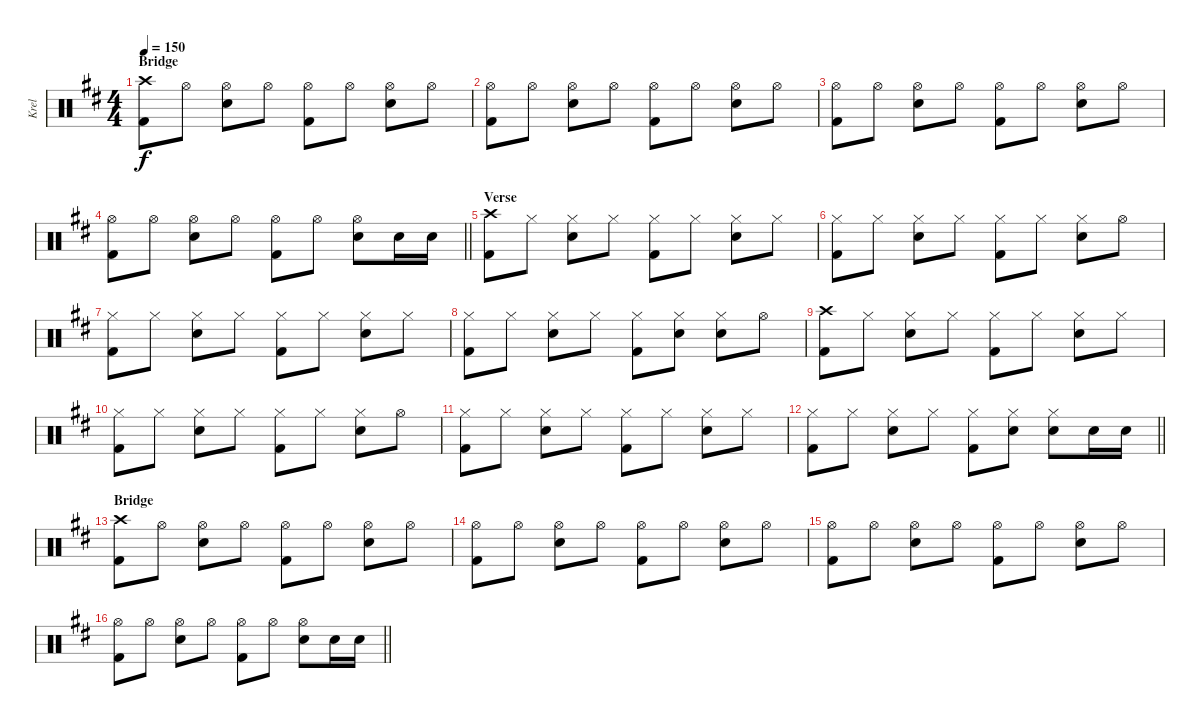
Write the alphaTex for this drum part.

\track ("Krel" "Krel") {instrument percussion}
\staff {score}
\articulation defaults
\ts (4 4)
\section ("" "Bridge")
\tempo 150
\clef neutral
\ks d
("Crash high (hit)" "Kick (hit) 2").8{dy f} "Hi-Hat (open)".8 ("Hi-Hat (open)" "Snare (hit) 2").8 "Hi-Hat (open)".8 ("Hi-Hat (open)" "Kick (hit) 2").8 "Hi-Hat (open)".8 ("Hi-Hat (open)" "Snare (hit) 2").8 "Hi-Hat (open)".8 |
("Hi-Hat (open)" "Kick (hit) 2").8 "Hi-Hat (open)".8 ("Hi-Hat (open)" "Snare (hit) 2").8 "Hi-Hat (open)".8 ("Hi-Hat (open)" "Kick (hit) 2").8 "Hi-Hat (open)".8 ("Hi-Hat (open)" "Snare (hit) 2").8 "Hi-Hat (open)".8 |
("Hi-Hat (open)" "Kick (hit) 2").8 "Hi-Hat (open)".8 ("Hi-Hat (open)" "Snare (hit) 2").8 "Hi-Hat (open)".8 ("Hi-Hat (open)" "Kick (hit) 2").8 "Hi-Hat (open)".8 ("Hi-Hat (open)" "Snare (hit) 2").8 "Hi-Hat (open)".8 |
\barLineRight lightlight
("Hi-Hat (open)" "Kick (hit) 2").8 "Hi-Hat (open)".8 ("Hi-Hat (open)" "Snare (hit) 2").8 "Hi-Hat (open)".8 ("Hi-Hat (open)" "Kick (hit) 2").8 "Hi-Hat (open)".8 ("Hi-Hat (open)" "Snare (hit) 2").8 "Snare (hit) 2".16 "Snare (hit) 2".16 |
\section ("" "Verse")
("Crash high (hit)" "Kick (hit) 2").8 "Hi-Hat (closed)".8 ("Hi-Hat (closed)" "Snare (hit) 2").8 "Hi-Hat (closed)".8 ("Hi-Hat (closed)" "Kick (hit) 2").8 "Hi-Hat (closed)".8 ("Hi-Hat (closed)" "Snare (hit) 2").8 "Hi-Hat (closed)".8 |
("Hi-Hat (closed)" "Kick (hit) 2").8 "Hi-Hat (closed)".8 ("Hi-Hat (closed)" "Snare (hit) 2").8 "Hi-Hat (closed)".8 ("Hi-Hat (closed)" "Kick (hit) 2").8 "Hi-Hat (closed)".8 ("Hi-Hat (closed)" "Snare (hit) 2").8 "Hi-Hat (open)".8 |
("Hi-Hat (closed)" "Kick (hit) 2").8 "Hi-Hat (closed)".8 ("Hi-Hat (closed)" "Snare (hit) 2").8 "Hi-Hat (closed)".8 ("Hi-Hat (closed)" "Kick (hit) 2").8 "Hi-Hat (closed)".8 ("Hi-Hat (closed)" "Snare (hit) 2").8 "Hi-Hat (closed)".8 |
("Hi-Hat (closed)" "Kick (hit) 2").8 "Hi-Hat (closed)".8 ("Hi-Hat (closed)" "Snare (hit) 2").8 "Hi-Hat (closed)".8 ("Hi-Hat (closed)" "Kick (hit) 2").8 ("Hi-Hat (closed)" "Snare (hit) 2").8 ("Hi-Hat (closed)" "Snare (hit) 2").8 "Hi-Hat (open)".8 |
("Crash high (hit)" "Kick (hit) 2").8 "Hi-Hat (closed)".8 ("Hi-Hat (closed)" "Snare (hit) 2").8 "Hi-Hat (closed)".8 ("Hi-Hat (closed)" "Kick (hit) 2").8 "Hi-Hat (closed)".8 ("Hi-Hat (closed)" "Snare (hit) 2").8 "Hi-Hat (closed)".8 |
("Hi-Hat (closed)" "Kick (hit) 2").8 "Hi-Hat (closed)".8 ("Hi-Hat (closed)" "Snare (hit) 2").8 "Hi-Hat (closed)".8 ("Hi-Hat (closed)" "Kick (hit) 2").8 "Hi-Hat (closed)".8 ("Hi-Hat (closed)" "Snare (hit) 2").8 "Hi-Hat (open)".8 |
("Hi-Hat (closed)" "Kick (hit) 2").8 "Hi-Hat (closed)".8 ("Hi-Hat (closed)" "Snare (hit) 2").8 "Hi-Hat (closed)".8 ("Hi-Hat (closed)" "Kick (hit) 2").8 "Hi-Hat (closed)".8 ("Hi-Hat (closed)" "Snare (hit) 2").8 "Hi-Hat (closed)".8 |
\barLineRight lightlight
("Hi-Hat (closed)" "Kick (hit) 2").8 "Hi-Hat (closed)".8 ("Hi-Hat (closed)" "Snare (hit) 2").8 "Hi-Hat (closed)".8 ("Hi-Hat (closed)" "Kick (hit) 2").8 ("Hi-Hat (closed)" "Snare (hit) 2").8 ("Hi-Hat (closed)" "Snare (hit) 2").8 "Snare (hit) 2".16 "Snare (hit) 2".16 |
\section ("" "Bridge")
("Crash high (hit)" "Kick (hit) 2").8 "Hi-Hat (open)".8 ("Hi-Hat (open)" "Snare (hit) 2").8 "Hi-Hat (open)".8 ("Hi-Hat (open)" "Kick (hit) 2").8 "Hi-Hat (open)".8 ("Hi-Hat (open)" "Snare (hit) 2").8 "Hi-Hat (open)".8 |
("Hi-Hat (open)" "Kick (hit) 2").8 "Hi-Hat (open)".8 ("Hi-Hat (open)" "Snare (hit) 2").8 "Hi-Hat (open)".8 ("Hi-Hat (open)" "Kick (hit) 2").8 "Hi-Hat (open)".8 ("Hi-Hat (open)" "Snare (hit) 2").8 "Hi-Hat (open)".8 |
("Hi-Hat (open)" "Kick (hit) 2").8 "Hi-Hat (open)".8 ("Hi-Hat (open)" "Snare (hit) 2").8 "Hi-Hat (open)".8 ("Hi-Hat (open)" "Kick (hit) 2").8 "Hi-Hat (open)".8 ("Hi-Hat (open)" "Snare (hit) 2").8 "Hi-Hat (open)".8 |
\barLineRight lightlight
("Hi-Hat (open)" "Kick (hit) 2").8 "Hi-Hat (open)".8 ("Hi-Hat (open)" "Snare (hit) 2").8 "Hi-Hat (open)".8 ("Hi-Hat (open)" "Kick (hit) 2").8 "Hi-Hat (open)".8 ("Hi-Hat (open)" "Snare (hit) 2").8 "Snare (hit) 2".16 "Snare (hit) 2".16
